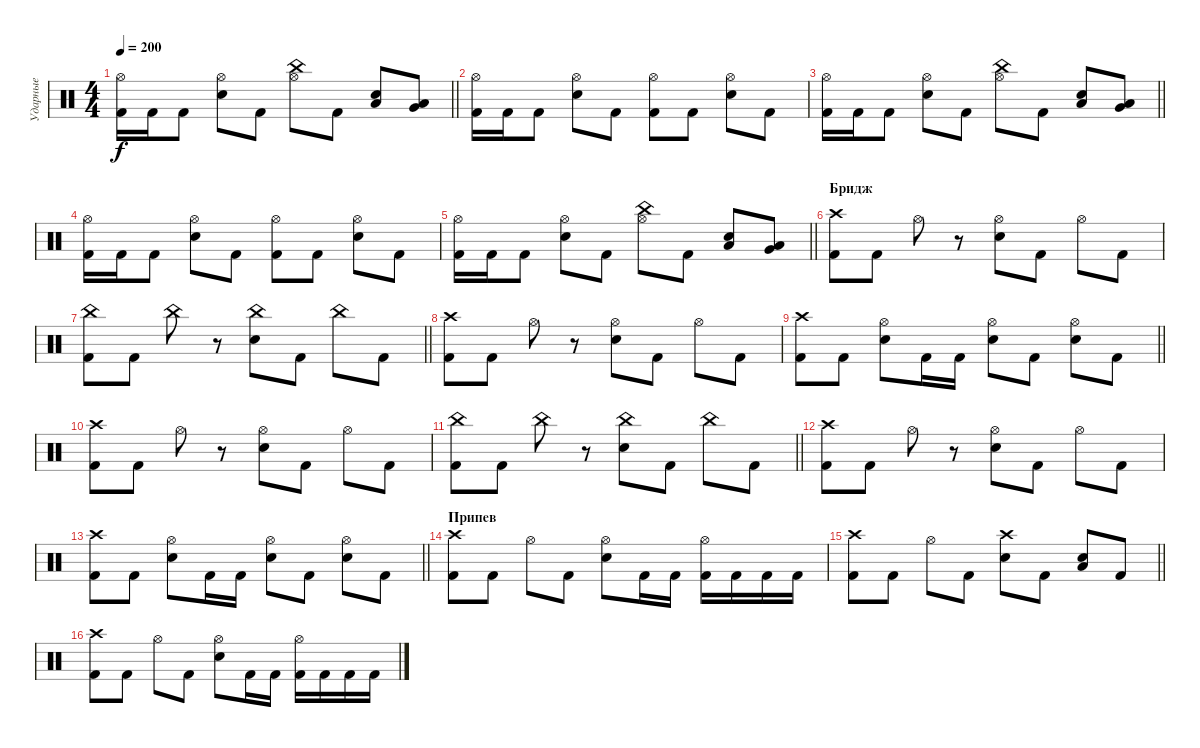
\track ("Ударные" "Ударные") {instrument percussion}
\staff {score}
\articulation defaults
\ts (4 4)
\tempo 200
\clef neutral
\barLineRight lightlight
\ks c
("Hi-Hat (open)" "Kick (hit) 2").16{dy f} "Kick (hit) 2".16 "Kick (hit) 2".8 ("Electric Snare (hit)" "Hi-Hat (open)").8 "Kick (hit) 2".8 ("China (hit)" "Hi-Hat (open)").8 "Kick (hit) 2".8 ("Electric Snare (hit)" "Low Floor Tom (hit)").8 ("Very Low Tom (hit)" "Low Floor Tom (hit)").8 |
("Hi-Hat (open)" "Kick (hit) 2").16 "Kick (hit) 2".16 "Kick (hit) 2".8 ("Electric Snare (hit)" "Hi-Hat (open)").8 "Kick (hit) 2".8 ("Hi-Hat (open)" "Kick (hit) 2").8 "Kick (hit) 2".8 ("Hi-Hat (open)" "Electric Snare (hit)").8 "Kick (hit) 2".8 |
\barLineRight lightlight
("Hi-Hat (open)" "Kick (hit) 2").16 "Kick (hit) 2".16 "Kick (hit) 2".8 ("Electric Snare (hit)" "Hi-Hat (open)").8 "Kick (hit) 2".8 ("China (hit)" "Hi-Hat (open)").8 "Kick (hit) 2".8 ("Electric Snare (hit)" "Low Floor Tom (hit)").8 ("Very Low Tom (hit)" "Low Floor Tom (hit)").8 |
("Hi-Hat (open)" "Kick (hit) 2").16 "Kick (hit) 2".16 "Kick (hit) 2".8 ("Electric Snare (hit)" "Hi-Hat (open)").8 "Kick (hit) 2".8 ("Hi-Hat (open)" "Kick (hit) 2").8 "Kick (hit) 2".8 ("Hi-Hat (open)" "Electric Snare (hit)").8 "Kick (hit) 2".8 |
\barLineRight lightlight
("Hi-Hat (open)" "Kick (hit) 2").16 "Kick (hit) 2".16 "Kick (hit) 2".8 ("Electric Snare (hit)" "Hi-Hat (open)").8 "Kick (hit) 2".8 ("China (hit)" "Hi-Hat (open)").8 "Kick (hit) 2".8 ("Electric Snare (hit)" "Low Floor Tom (hit)").8 ("Very Low Tom (hit)" "Low Floor Tom (hit)").8 |
\section ("" "Бридж")
("Crash high (hit)" "Kick (hit) 2").8 "Kick (hit) 2".8 "Hi-Hat (open)".8 r.8 ("Electric Snare (hit)" "Hi-Hat (open)").8 "Kick (hit) 2".8 "Hi-Hat (open)".8 "Kick (hit) 2".8 |
\barLineRight lightlight
("China (hit)" "Kick (hit) 2").8 "Kick (hit) 2".8 "China (hit)".8 r.8 ("Electric Snare (hit)" "China (hit)").8 "Kick (hit) 2".8 "China (hit)".8 "Kick (hit) 2".8 |
("Crash high (hit)" "Kick (hit) 2").8 "Kick (hit) 2".8 "Hi-Hat (open)".8 r.8 ("Electric Snare (hit)" "Hi-Hat (open)").8 "Kick (hit) 2".8 "Hi-Hat (open)".8 "Kick (hit) 2".8 |
\barLineRight lightlight
("Crash high (hit)" "Kick (hit) 2").8 "Kick (hit) 2".8 ("Electric Snare (hit)" "Hi-Hat (open)").8 "Kick (hit) 2".16 "Kick (hit) 2".16 ("Electric Snare (hit)" "Hi-Hat (open)").8 "Kick (hit) 2".8 ("Electric Snare (hit)" "Hi-Hat (open)").8 "Kick (hit) 2".8 |
("Crash high (hit)" "Kick (hit) 2").8 "Kick (hit) 2".8 "Hi-Hat (open)".8 r.8 ("Electric Snare (hit)" "Hi-Hat (open)").8 "Kick (hit) 2".8 "Hi-Hat (open)".8 "Kick (hit) 2".8 |
\barLineRight lightlight
("China (hit)" "Kick (hit) 2").8 "Kick (hit) 2".8 "China (hit)".8 r.8 ("Electric Snare (hit)" "China (hit)").8 "Kick (hit) 2".8 "China (hit)".8 "Kick (hit) 2".8 |
("Crash high (hit)" "Kick (hit) 2").8 "Kick (hit) 2".8 "Hi-Hat (open)".8 r.8 ("Electric Snare (hit)" "Hi-Hat (open)").8 "Kick (hit) 2".8 "Hi-Hat (open)".8 "Kick (hit) 2".8 |
\barLineRight lightlight
("Crash high (hit)" "Kick (hit) 2").8 "Kick (hit) 2".8 ("Electric Snare (hit)" "Hi-Hat (open)").8 "Kick (hit) 2".16 "Kick (hit) 2".16 ("Electric Snare (hit)" "Hi-Hat (open)").8 "Kick (hit) 2".8 ("Electric Snare (hit)" "Hi-Hat (open)").8 "Kick (hit) 2".8 |
\section ("" "Припев")
("Kick (hit) 2" "Crash high (hit)").8 "Kick (hit) 2".8 "Hi-Hat (open)".8 "Kick (hit) 2".8 ("Electric Snare (hit)" "Hi-Hat (open)").8 "Kick (hit) 2".16 "Kick (hit) 2".16 ("Kick (hit) 2" "Hi-Hat (open)").16 "Kick (hit) 2".16 "Kick (hit) 2".16 "Kick (hit) 2".16 |
\barLineRight lightlight
("Kick (hit) 2" "Crash high (hit)").8 "Kick (hit) 2".8 "Hi-Hat (open)".8 "Kick (hit) 2".8 ("Electric Snare (hit)" "Crash high (hit)").8 "Kick (hit) 2".8 ("Electric Snare (hit)" "Low Floor Tom (hit)").8 "Kick (hit) 2".8 |
("Kick (hit) 2" "Crash high (hit)").8 "Kick (hit) 2".8 "Hi-Hat (open)".8 "Kick (hit) 2".8 ("Electric Snare (hit)" "Hi-Hat (open)").8 "Kick (hit) 2".16 "Kick (hit) 2".16 ("Kick (hit) 2" "Hi-Hat (open)").16 "Kick (hit) 2".16 "Kick (hit) 2".16 "Kick (hit) 2".16
